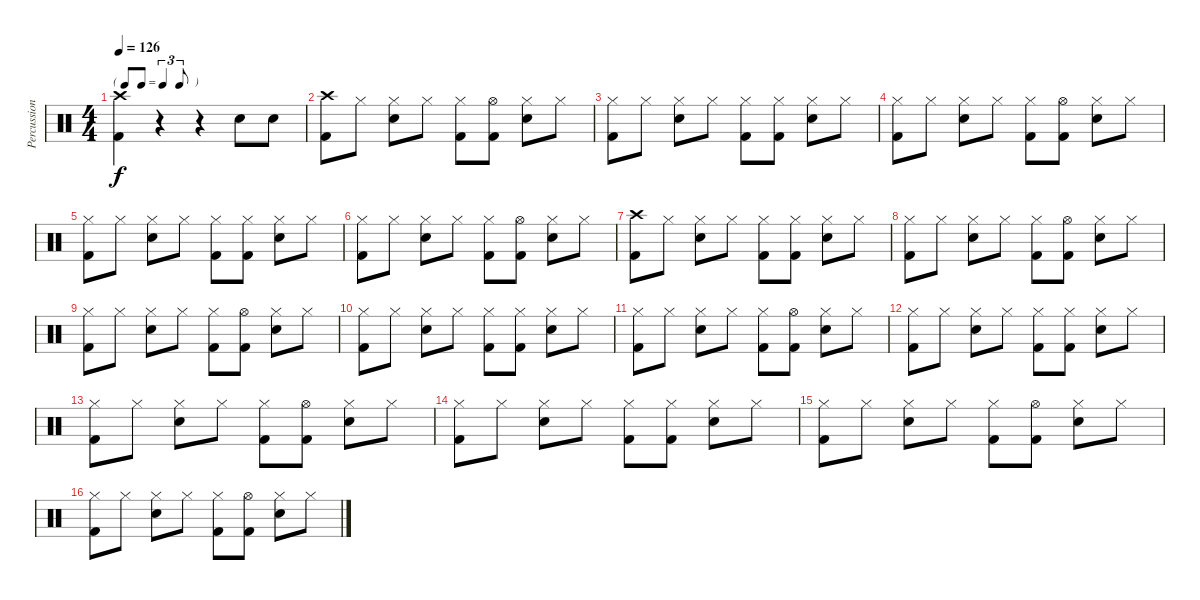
\track ("Percussion" "Percussion") {instrument percussion}
\staff {score}
\articulation defaults
\ts (4 4)
\tf triplet8th
\tempo 126
\clef neutral
\ks c
("Crash high (hit)" "Kick (hit) 2").4{dy f} r.4 r.4 "Electric Snare (hit)".8 "Electric Snare (hit)".8 |
("Crash high (hit)" "Kick (hit) 2").8 "Hi-Hat (closed)".8 ("Hi-Hat (closed)" "Electric Snare (hit)").8 "Hi-Hat (closed)".8 ("Hi-Hat (closed)" "Kick (hit) 2").8 ("Hi-Hat (open)" "Kick (hit) 2").8 ("Hi-Hat (closed)" "Electric Snare (hit)").8 "Hi-Hat (closed)".8 |
("Hi-Hat (closed)" "Kick (hit) 2").8 "Hi-Hat (closed)".8 ("Hi-Hat (closed)" "Electric Snare (hit)").8 "Hi-Hat (closed)".8 ("Hi-Hat (closed)" "Kick (hit) 2").8 ("Hi-Hat (closed)" "Kick (hit) 2").8 ("Hi-Hat (closed)" "Electric Snare (hit)").8 "Hi-Hat (closed)".8 |
("Hi-Hat (closed)" "Kick (hit) 2").8 "Hi-Hat (closed)".8 ("Hi-Hat (closed)" "Electric Snare (hit)").8 "Hi-Hat (closed)".8 ("Hi-Hat (closed)" "Kick (hit) 2").8 ("Hi-Hat (open)" "Kick (hit) 2").8 ("Hi-Hat (closed)" "Electric Snare (hit)").8 "Hi-Hat (closed)".8 |
("Hi-Hat (closed)" "Kick (hit) 2").8 "Hi-Hat (closed)".8 ("Hi-Hat (closed)" "Electric Snare (hit)").8 "Hi-Hat (closed)".8 ("Hi-Hat (closed)" "Kick (hit) 2").8 ("Hi-Hat (closed)" "Kick (hit) 2").8 ("Hi-Hat (closed)" "Electric Snare (hit)").8 "Hi-Hat (closed)".8 |
("Hi-Hat (closed)" "Kick (hit) 2").8 "Hi-Hat (closed)".8 ("Hi-Hat (closed)" "Electric Snare (hit)").8 "Hi-Hat (closed)".8 ("Hi-Hat (closed)" "Kick (hit) 2").8 ("Hi-Hat (open)" "Kick (hit) 2").8 ("Hi-Hat (closed)" "Electric Snare (hit)").8 "Hi-Hat (closed)".8 |
("Crash high (hit)" "Kick (hit) 2").8 "Hi-Hat (closed)".8 ("Hi-Hat (closed)" "Electric Snare (hit)").8 "Hi-Hat (closed)".8 ("Hi-Hat (closed)" "Kick (hit) 2").8 ("Hi-Hat (closed)" "Kick (hit) 2").8 ("Hi-Hat (closed)" "Electric Snare (hit)").8 "Hi-Hat (closed)".8 |
("Hi-Hat (closed)" "Kick (hit) 2").8 "Hi-Hat (closed)".8 ("Hi-Hat (closed)" "Electric Snare (hit)").8 "Hi-Hat (closed)".8 ("Hi-Hat (closed)" "Kick (hit) 2").8 ("Hi-Hat (open)" "Kick (hit) 2").8 ("Hi-Hat (closed)" "Electric Snare (hit)").8 "Hi-Hat (closed)".8 |
("Hi-Hat (closed)" "Kick (hit) 2").8 "Hi-Hat (closed)".8 ("Hi-Hat (closed)" "Electric Snare (hit)").8 "Hi-Hat (closed)".8 ("Hi-Hat (closed)" "Kick (hit) 2").8 ("Hi-Hat (open)" "Kick (hit) 2").8 ("Hi-Hat (closed)" "Electric Snare (hit)").8 "Hi-Hat (closed)".8 |
("Hi-Hat (closed)" "Kick (hit) 2").8 "Hi-Hat (closed)".8 ("Hi-Hat (closed)" "Electric Snare (hit)").8 "Hi-Hat (closed)".8 ("Hi-Hat (closed)" "Kick (hit) 2").8 ("Hi-Hat (closed)" "Kick (hit) 2").8 ("Hi-Hat (closed)" "Electric Snare (hit)").8 "Hi-Hat (closed)".8 |
("Hi-Hat (closed)" "Kick (hit) 2").8 "Hi-Hat (closed)".8 ("Hi-Hat (closed)" "Electric Snare (hit)").8 "Hi-Hat (closed)".8 ("Hi-Hat (closed)" "Kick (hit) 2").8 ("Hi-Hat (open)" "Kick (hit) 2").8 ("Hi-Hat (closed)" "Electric Snare (hit)").8 "Hi-Hat (closed)".8 |
("Hi-Hat (closed)" "Kick (hit) 2").8 "Hi-Hat (closed)".8 ("Hi-Hat (closed)" "Electric Snare (hit)").8 "Hi-Hat (closed)".8 ("Hi-Hat (closed)" "Kick (hit) 2").8 ("Hi-Hat (closed)" "Kick (hit) 2").8 ("Hi-Hat (closed)" "Electric Snare (hit)").8 "Hi-Hat (closed)".8 |
("Hi-Hat (closed)" "Kick (hit) 2").8 "Hi-Hat (closed)".8 ("Hi-Hat (closed)" "Electric Snare (hit)").8 "Hi-Hat (closed)".8 ("Hi-Hat (closed)" "Kick (hit) 2").8 ("Hi-Hat (open)" "Kick (hit) 2").8 ("Hi-Hat (closed)" "Electric Snare (hit)").8 "Hi-Hat (closed)".8 |
("Hi-Hat (closed)" "Kick (hit) 2").8 "Hi-Hat (closed)".8 ("Hi-Hat (closed)" "Electric Snare (hit)").8 "Hi-Hat (closed)".8 ("Hi-Hat (closed)" "Kick (hit) 2").8 ("Hi-Hat (closed)" "Kick (hit) 2").8 ("Hi-Hat (closed)" "Electric Snare (hit)").8 "Hi-Hat (closed)".8 |
("Hi-Hat (closed)" "Kick (hit) 2").8 "Hi-Hat (closed)".8 ("Hi-Hat (closed)" "Electric Snare (hit)").8 "Hi-Hat (closed)".8 ("Hi-Hat (closed)" "Kick (hit) 2").8 ("Hi-Hat (open)" "Kick (hit) 2").8 ("Hi-Hat (closed)" "Electric Snare (hit)").8 "Hi-Hat (closed)".8 |
("Hi-Hat (closed)" "Kick (hit) 2").8 "Hi-Hat (closed)".8 ("Hi-Hat (closed)" "Electric Snare (hit)").8 "Hi-Hat (closed)".8 ("Hi-Hat (closed)" "Kick (hit) 2").8 ("Hi-Hat (open)" "Kick (hit) 2").8 ("Hi-Hat (closed)" "Electric Snare (hit)").8 "Hi-Hat (closed)".8
